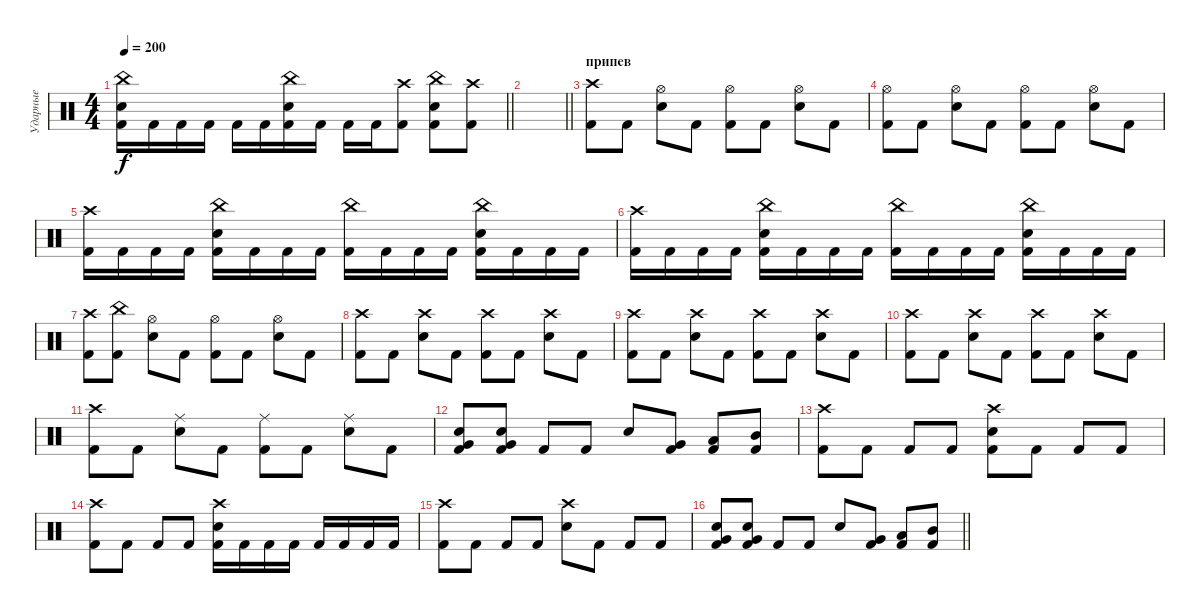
\track ("Ударные" "Ударные") {instrument percussion}
\staff {score}
\articulation defaults
\ts (4 4)
\tempo 200
\clef neutral
\barLineRight lightlight
\ks c
("China (hit)" "Electric Snare (hit)" "Kick (hit) 2").16{dy f} "Kick (hit) 2".16 "Kick (hit) 2".16 "Kick (hit) 2".16 "Kick (hit) 2".16 "Kick (hit) 2".16 ("China (hit)" "Electric Snare (hit)" "Kick (hit) 2").16 "Kick (hit) 2".16 "Kick (hit) 2".16 "Kick (hit) 2".16 ("Crash high (hit)" "Kick (hit) 2").8 ("China (hit)" "Electric Snare (hit)" "Kick (hit) 2").8 ("Crash high (hit)" "Kick (hit) 2").8 |
\barLineRight lightlight
|
\section ("" "припев")
("Crash high (hit)" "Kick (hit) 2").8 "Kick (hit) 2".8 ("Hi-Hat (open)" "Electric Snare (hit)").8 "Kick (hit) 2".8 ("Hi-Hat (open)" "Kick (hit) 2").8 "Kick (hit) 2".8 ("Hi-Hat (open)" "Electric Snare (hit)").8 "Kick (hit) 2".8 |
("Hi-Hat (open)" "Kick (hit) 2").8 "Kick (hit) 2".8 ("Hi-Hat (open)" "Electric Snare (hit)").8 "Kick (hit) 2".8 ("Hi-Hat (open)" "Kick (hit) 2").8 "Kick (hit) 2".8 ("Hi-Hat (open)" "Electric Snare (hit)").8 "Kick (hit) 2".8 |
("Kick (hit) 2" "Crash high (hit)").16 "Kick (hit) 2".16 "Kick (hit) 2".16 "Kick (hit) 2".16 ("Kick (hit) 2" "Electric Snare (hit)" "China (hit)").16 "Kick (hit) 2".16 "Kick (hit) 2".16 "Kick (hit) 2".16 ("Kick (hit) 2" "China (hit)").16 "Kick (hit) 2".16 "Kick (hit) 2".16 "Kick (hit) 2".16 ("Kick (hit) 2" "Electric Snare (hit)" "China (hit)").16 "Kick (hit) 2".16 "Kick (hit) 2".16 "Kick (hit) 2".16 |
("Kick (hit) 2" "Crash high (hit)").16 "Kick (hit) 2".16 "Kick (hit) 2".16 "Kick (hit) 2".16 ("Kick (hit) 2" "Electric Snare (hit)" "China (hit)").16 "Kick (hit) 2".16 "Kick (hit) 2".16 "Kick (hit) 2".16 ("Kick (hit) 2" "China (hit)").16 "Kick (hit) 2".16 "Kick (hit) 2".16 "Kick (hit) 2".16 ("Kick (hit) 2" "Electric Snare (hit)" "China (hit)").16 "Kick (hit) 2".16 "Kick (hit) 2".16 "Kick (hit) 2".16 |
("Crash high (hit)" "Kick (hit) 2").8 ("China (hit)" "Kick (hit) 2").8 ("Hi-Hat (open)" "Electric Snare (hit)").8 "Kick (hit) 2".8 ("Hi-Hat (open)" "Kick (hit) 2").8 "Kick (hit) 2".8 ("Hi-Hat (open)" "Electric Snare (hit)").8 "Kick (hit) 2".8 |
("Crash high (hit)" "Kick (hit) 2").8 "Kick (hit) 2".8 ("Crash high (hit)" "Electric Snare (hit)").8 "Kick (hit) 2".8 ("Crash high (hit)" "Kick (hit) 2").8 "Kick (hit) 2".8 ("Crash high (hit)" "Electric Snare (hit)").8 "Kick (hit) 2".8 |
("Crash high (hit)" "Kick (hit) 2").8 "Kick (hit) 2".8 ("Crash high (hit)" "Electric Snare (hit)").8 "Kick (hit) 2".8 ("Crash high (hit)" "Kick (hit) 2").8 "Kick (hit) 2".8 ("Crash high (hit)" "Electric Snare (hit)").8 "Kick (hit) 2".8 |
("Crash high (hit)" "Kick (hit) 2").8 "Kick (hit) 2".8 ("Crash high (hit)" "Electric Snare (hit)").8 "Kick (hit) 2".8 ("Crash high (hit)" "Kick (hit) 2").8 "Kick (hit) 2".8 ("Crash high (hit)" "Electric Snare (hit)").8 "Kick (hit) 2".8 |
("Crash high (hit)" "Kick (hit) 2").8 "Kick (hit) 2".8 ("Ride (middle)" "Electric Snare (hit)").8 "Kick (hit) 2".8 ("Ride (middle)" "Kick (hit) 2").8 "Kick (hit) 2".8 ("Ride (middle)" "Electric Snare (hit)").8 "Kick (hit) 2".8 |
("Kick (hit) 2" "Very Low Tom (hit)" "Electric Snare (hit)").8 ("Kick (hit) 2" "Very Low Tom (hit)" "Electric Snare (hit)").8 "Kick (hit) 2".8 "Kick (hit) 2".8 "Electric Snare (hit)".8 ("Kick (hit) 2" "Very Low Tom (hit)").8 ("Kick (hit) 2" "Low Tom (hit)").8 ("Kick (hit) 2" "Mid Tom (hit)").8 |
("Crash high (hit)" "Kick (hit) 2").8 "Kick (hit) 2".8 "Kick (hit) 2".8 "Kick (hit) 2".8 ("Kick (hit) 2" "Crash high (hit)" "Electric Snare (hit)").8 "Kick (hit) 2".8 "Kick (hit) 2".8 "Kick (hit) 2".8 |
("Crash high (hit)" "Kick (hit) 2").8 "Kick (hit) 2".8 "Kick (hit) 2".8 "Kick (hit) 2".8 ("Kick (hit) 2" "Crash high (hit)" "Electric Snare (hit)").16 "Kick (hit) 2".16 "Kick (hit) 2".16 "Kick (hit) 2".16 "Kick (hit) 2".16 "Kick (hit) 2".16 "Kick (hit) 2".16 "Kick (hit) 2".16 |
("Crash high (hit)" "Kick (hit) 2").8 "Kick (hit) 2".8 "Kick (hit) 2".8 "Kick (hit) 2".8 ("Crash high (hit)" "Electric Snare (hit)").8 "Kick (hit) 2".8 "Kick (hit) 2".8 "Kick (hit) 2".8 |
\barLineRight lightlight
("Kick (hit) 2" "Very Low Tom (hit)" "Electric Snare (hit)").8 ("Kick (hit) 2" "Very Low Tom (hit)" "Electric Snare (hit)").8 "Kick (hit) 2".8 "Kick (hit) 2".8 "Electric Snare (hit)".8 ("Kick (hit) 2" "Very Low Tom (hit)").8 ("Kick (hit) 2" "Low Tom (hit)").8 ("Kick (hit) 2" "Mid Tom (hit)").8
